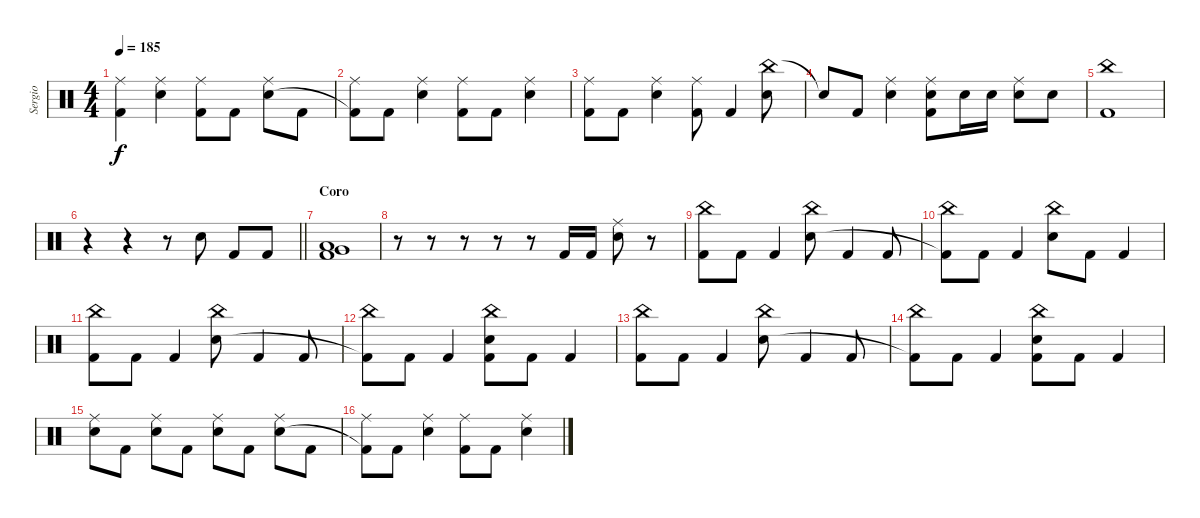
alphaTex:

\track ("Sergio" "Sergio") {instrument percussion}
\staff {score}
\articulation defaults
\ts (4 4)
\tempo 185
\clef neutral
\ks c
("Ride (middle)" "Kick (hit) 2").4{dy f} ("Ride (middle)" "Electric Snare (hit)").4 ("Ride (middle)" "Kick (hit) 2").8 "Kick (hit) 2".8 ("Ride (middle)" "Electric Snare (hit)").8 "Kick (hit) 2".8 |
("Ride (middle)" "Kick (hit) 2"{t}).8 "Kick (hit) 2".8 ("Ride (middle)" "Electric Snare (hit)").4 ("Ride (middle)" "Kick (hit) 2").8 "Kick (hit) 2".8 ("Ride (middle)" "Electric Snare (hit)").4 |
("Ride (middle)" "Kick (hit) 2").8 "Kick (hit) 2".8 ("Ride (middle)" "Electric Snare (hit)").4 ("Ride (middle)" "Kick (hit) 2").8 "Kick (hit) 2".4 ("China (hit)" "Electric Snare (hit)").8 |
"Snare (hit)"{t}.8 "Kick (hit) 2".8 ("Ride (middle)" "Electric Snare (hit)").4 ("Ride (middle)" "Electric Snare (hit)" "Kick (hit) 2").8 "Electric Snare (hit)".16 "Electric Snare (hit)".16 ("Ride (middle)" "Electric Snare (hit)").8 "Electric Snare (hit)".8 |
("China (hit)" "Kick (hit) 2").1 |
\barLineRight lightlight
r.4 r.4 r.8 "Electric Snare (hit)".8 "Kick (hit) 2".8 "Kick (hit) 2".8 |
\section ("" "Coro")
("Very Low Tom (hit)" "Low Floor Tom (hit)" "Kick (hit) 2").1 |
r.8 r.8 r.8 r.8 r.8 "Kick (hit) 2".16 "Kick (hit) 2".16 ("Ride (middle)" "Electric Snare (hit)").8 r.8 |
("China (hit)" "Kick (hit) 2").8 "Kick (hit) 2".8 "Kick (hit) 2".4 ("China (hit)" "Electric Snare (hit)").8 "Kick (hit) 2".4 "Kick (hit) 2".8 |
("China (hit)" "Kick (hit) 2"{t}).8 "Kick (hit) 2".8 "Kick (hit) 2".4 ("China (hit)" "Electric Snare (hit)").8 "Kick (hit) 2".8 "Kick (hit) 2".4 |
("China (hit)" "Kick (hit) 2").8 "Kick (hit) 2".8 "Kick (hit) 2".4 ("China (hit)" "Electric Snare (hit)").8 "Kick (hit) 2".4 "Kick (hit) 2".8 |
("China (hit)" "Kick (hit) 2"{t}).8 "Kick (hit) 2".8 "Kick (hit) 2".4 ("China (hit)" "Electric Snare (hit)" "Kick (hit) 2").8 "Kick (hit) 2".8 "Kick (hit) 2".4 |
("China (hit)" "Kick (hit) 2").8 "Kick (hit) 2".8 "Kick (hit) 2".4 ("China (hit)" "Electric Snare (hit)").8 "Kick (hit) 2".4 "Kick (hit) 2".8 |
("China (hit)" "Kick (hit) 2"{t}).8 "Kick (hit) 2".8 "Kick (hit) 2".4 ("China (hit)" "Electric Snare (hit)" "Kick (hit) 2").8 "Kick (hit) 2".8 "Kick (hit) 2".4 |
("Ride (middle)" "Electric Snare (hit)").8 "Kick (hit) 2".8 ("Ride (middle)" "Electric Snare (hit)").8 "Kick (hit) 2".8 ("Ride (middle)" "Electric Snare (hit)").8 "Kick (hit) 2".8 ("Ride (middle)" "Electric Snare (hit)").8 "Kick (hit) 2".8 |
("Ride (middle)" "Kick (hit) 2"{t}).8 "Kick (hit) 2".8 ("Ride (middle)" "Electric Snare (hit)").4 ("Ride (middle)" "Kick (hit) 2").8 "Kick (hit) 2".8 ("Ride (middle)" "Electric Snare (hit)").4
